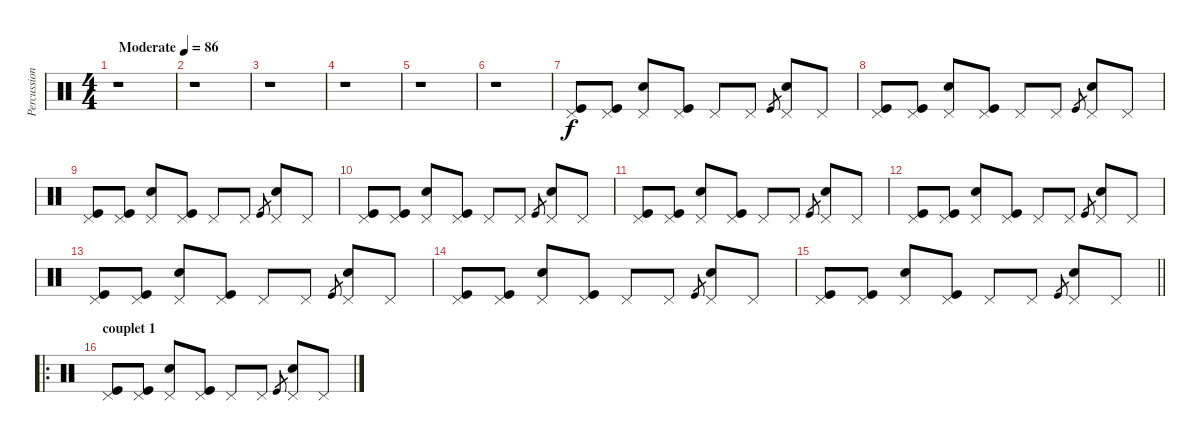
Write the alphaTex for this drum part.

\track ("Percussions" "Percussion") {instrument percussion}
\staff {score}
\articulation defaults
\ts (4 4)
\tempo (86 "Moderate")
\clef neutral
\ks c
r.1{dy f} |
r.1 |
r.1 |
r.1 |
r.1 |
r.1 |
("Pedal Hi-Hat (hit)" "Kick (hit)").8 ("Pedal Hi-Hat (hit)" "Kick (hit)").8 ("Pedal Hi-Hat (hit)" "Electric Snare (hit)").8 ("Pedal Hi-Hat (hit)" "Kick (hit)").8 "Pedal Hi-Hat (hit)".8 "Pedal Hi-Hat (hit)".8 "Kick (hit)".8{gr} ("Pedal Hi-Hat (hit)" "Electric Snare (hit)").8 "Pedal Hi-Hat (hit)".8 |
("Pedal Hi-Hat (hit)" "Kick (hit)").8 ("Pedal Hi-Hat (hit)" "Kick (hit)").8 ("Pedal Hi-Hat (hit)" "Electric Snare (hit)").8 ("Pedal Hi-Hat (hit)" "Kick (hit)").8 "Pedal Hi-Hat (hit)".8 "Pedal Hi-Hat (hit)".8 "Kick (hit)".8{gr} ("Pedal Hi-Hat (hit)" "Electric Snare (hit)").8 "Pedal Hi-Hat (hit)".8 |
("Pedal Hi-Hat (hit)" "Kick (hit)").8 ("Pedal Hi-Hat (hit)" "Kick (hit)").8 ("Pedal Hi-Hat (hit)" "Electric Snare (hit)").8 ("Pedal Hi-Hat (hit)" "Kick (hit)").8 "Pedal Hi-Hat (hit)".8 "Pedal Hi-Hat (hit)".8 "Kick (hit)".8{gr} ("Pedal Hi-Hat (hit)" "Electric Snare (hit)").8 "Pedal Hi-Hat (hit)".8 |
("Pedal Hi-Hat (hit)" "Kick (hit)").8 ("Pedal Hi-Hat (hit)" "Kick (hit)").8 ("Pedal Hi-Hat (hit)" "Electric Snare (hit)").8 ("Pedal Hi-Hat (hit)" "Kick (hit)").8 "Pedal Hi-Hat (hit)".8 "Pedal Hi-Hat (hit)".8 "Kick (hit)".8{gr} ("Pedal Hi-Hat (hit)" "Electric Snare (hit)").8 "Pedal Hi-Hat (hit)".8 |
("Pedal Hi-Hat (hit)" "Kick (hit)").8 ("Pedal Hi-Hat (hit)" "Kick (hit)").8 ("Pedal Hi-Hat (hit)" "Electric Snare (hit)").8 ("Pedal Hi-Hat (hit)" "Kick (hit)").8 "Pedal Hi-Hat (hit)".8 "Pedal Hi-Hat (hit)".8 "Kick (hit)".8{gr} ("Pedal Hi-Hat (hit)" "Electric Snare (hit)").8 "Pedal Hi-Hat (hit)".8 |
("Pedal Hi-Hat (hit)" "Kick (hit)").8 ("Pedal Hi-Hat (hit)" "Kick (hit)").8 ("Pedal Hi-Hat (hit)" "Electric Snare (hit)").8 ("Pedal Hi-Hat (hit)" "Kick (hit)").8 "Pedal Hi-Hat (hit)".8 "Pedal Hi-Hat (hit)".8 "Kick (hit)".8{gr} ("Pedal Hi-Hat (hit)" "Electric Snare (hit)").8 "Pedal Hi-Hat (hit)".8 |
("Pedal Hi-Hat (hit)" "Kick (hit)").8 ("Pedal Hi-Hat (hit)" "Kick (hit)").8 ("Pedal Hi-Hat (hit)" "Electric Snare (hit)").8 ("Pedal Hi-Hat (hit)" "Kick (hit)").8 "Pedal Hi-Hat (hit)".8 "Pedal Hi-Hat (hit)".8 "Kick (hit)".8{gr} ("Pedal Hi-Hat (hit)" "Electric Snare (hit)").8 "Pedal Hi-Hat (hit)".8 |
("Pedal Hi-Hat (hit)" "Kick (hit)").8 ("Pedal Hi-Hat (hit)" "Kick (hit)").8 ("Pedal Hi-Hat (hit)" "Electric Snare (hit)").8 ("Pedal Hi-Hat (hit)" "Kick (hit)").8 "Pedal Hi-Hat (hit)".8 "Pedal Hi-Hat (hit)".8 "Kick (hit)".8{gr} ("Pedal Hi-Hat (hit)" "Electric Snare (hit)").8 "Pedal Hi-Hat (hit)".8 |
\barLineRight lightlight
("Pedal Hi-Hat (hit)" "Kick (hit)").8 ("Pedal Hi-Hat (hit)" "Kick (hit)").8 ("Pedal Hi-Hat (hit)" "Electric Snare (hit)").8 ("Pedal Hi-Hat (hit)" "Kick (hit)").8 "Pedal Hi-Hat (hit)".8 "Pedal Hi-Hat (hit)".8 "Kick (hit)".8{gr} ("Pedal Hi-Hat (hit)" "Electric Snare (hit)").8 "Pedal Hi-Hat (hit)".8 |
\ro
\section ("" "couplet 1")
("Pedal Hi-Hat (hit)" "Kick (hit)").8 ("Pedal Hi-Hat (hit)" "Kick (hit)").8 ("Pedal Hi-Hat (hit)" "Electric Snare (hit)").8 ("Pedal Hi-Hat (hit)" "Kick (hit)").8 "Pedal Hi-Hat (hit)".8 "Pedal Hi-Hat (hit)".8 "Kick (hit)".8{gr} ("Pedal Hi-Hat (hit)" "Electric Snare (hit)").8 "Pedal Hi-Hat (hit)".8
